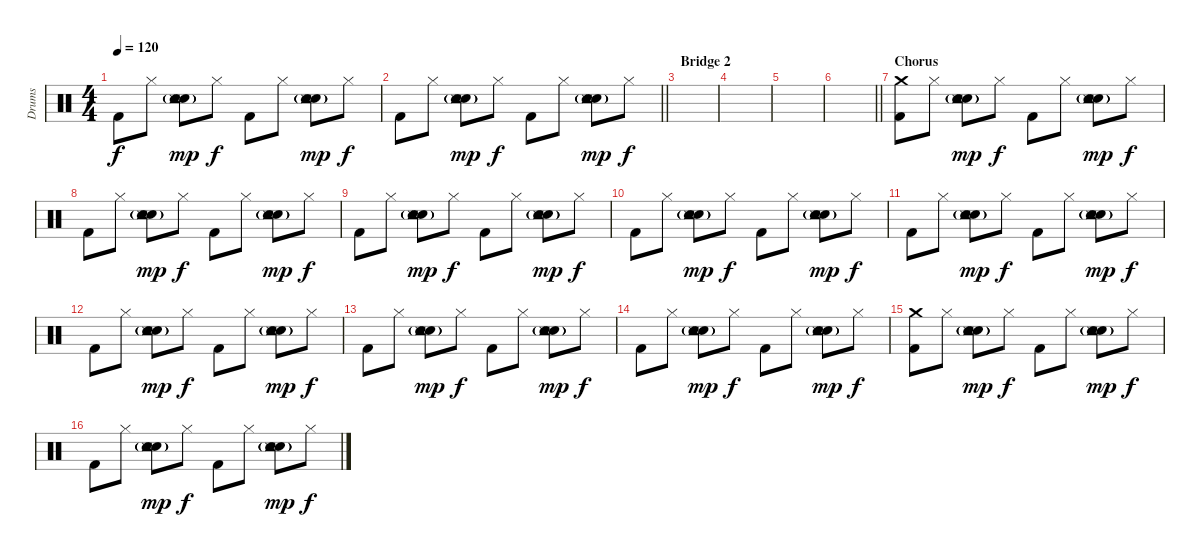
\track ("Drums" "Drums") {instrument percussion}
\staff {score}
\articulation defaults
\ts (4 4)
\tempo 120
\clef neutral
\ks c "Kick (hit) 2".8{dy f} "Hi-Hat (closed)".8
("Snare (hit) 2"{g} "Tambourine (hit)"{g} "Electric Snare (hit)" "Snare (side stick) 3"{g}).8{dy mp} "Hi-Hat (closed)".8{dy f} "Kick (hit) 2".8 "Hi-Hat (closed)".8 ("Snare (hit) 2"{g} "Tambourine (hit)"{g} "Electric Snare (hit)" "Snare (side stick) 3"{g}).8{dy mp} "Hi-Hat (closed)".8{dy f} |
\barLineRight lightlight "Kick (hit) 2".8 "Hi-Hat (closed)".8
("Snare (hit) 2"{g} "Tambourine (hit)"{g} "Electric Snare (hit)" "Snare (side stick) 3"{g}).8{dy mp} "Hi-Hat (closed)".8{dy f} "Kick (hit) 2".8 "Hi-Hat (closed)".8 ("Snare (hit) 2"{g} "Tambourine (hit)"{g} "Electric Snare (hit)" "Snare (side stick) 3"{g}).8{dy mp} "Hi-Hat (closed)".8{dy f} |
\section ("" "Bridge 2")
|
|
|
\barLineRight lightlight
|
\section ("" "Chorus")
("Crash medium (hit)" "Kick (hit) 2").8{volume 12 balance 8} "Hi-Hat (closed)".8 ("Snare (hit) 2"{g} "Tambourine (hit)"{g} "Electric Snare (hit)" "Snare (side stick) 3"{g}).8{dy mp} "Hi-Hat (closed)".8{dy f} "Kick (hit) 2".8 "Hi-Hat (closed)".8 ("Snare (hit) 2"{g} "Tambourine (hit)"{g} "Electric Snare (hit)" "Snare (side stick) 3"{g}).8{dy mp} "Hi-Hat (closed)".8{dy f} |
"Kick (hit) 2".8 "Hi-Hat (closed)".8 ("Snare (hit) 2"{g} "Tambourine (hit)"{g} "Electric Snare (hit)" "Snare (side stick) 3"{g}).8{dy mp} "Hi-Hat (closed)".8{dy f} "Kick (hit) 2".8 "Hi-Hat (closed)".8 ("Snare (hit) 2"{g} "Tambourine (hit)"{g} "Electric Snare (hit)" "Snare (side stick) 3"{g}).8{dy mp} "Hi-Hat (closed)".8{dy f} |
"Kick (hit) 2".8 "Hi-Hat (closed)".8 ("Snare (hit) 2"{g} "Tambourine (hit)"{g} "Electric Snare (hit)" "Snare (side stick) 3"{g}).8{dy mp} "Hi-Hat (closed)".8{dy f} "Kick (hit) 2".8 "Hi-Hat (closed)".8 ("Snare (hit) 2"{g} "Tambourine (hit)"{g} "Electric Snare (hit)" "Snare (side stick) 3"{g}).8{dy mp} "Hi-Hat (closed)".8{dy f} |
"Kick (hit) 2".8 "Hi-Hat (closed)".8 ("Snare (hit) 2"{g} "Tambourine (hit)"{g} "Electric Snare (hit)" "Snare (side stick) 3"{g}).8{dy mp} "Hi-Hat (closed)".8{dy f} "Kick (hit) 2".8 "Hi-Hat (closed)".8 ("Snare (hit) 2"{g} "Tambourine (hit)"{g} "Electric Snare (hit)" "Snare (side stick) 3"{g}).8{dy mp} "Hi-Hat (closed)".8{dy f} |
"Kick (hit) 2".8 "Hi-Hat (closed)".8 ("Snare (hit) 2"{g} "Tambourine (hit)"{g} "Electric Snare (hit)" "Snare (side stick) 3"{g}).8{dy mp} "Hi-Hat (closed)".8{dy f} "Kick (hit) 2".8 "Hi-Hat (closed)".8 ("Snare (hit) 2"{g} "Tambourine (hit)"{g} "Electric Snare (hit)" "Snare (side stick) 3"{g}).8{dy mp} "Hi-Hat (closed)".8{dy f} |
"Kick (hit) 2".8 "Hi-Hat (closed)".8 ("Snare (hit) 2"{g} "Tambourine (hit)"{g} "Electric Snare (hit)" "Snare (side stick) 3"{g}).8{dy mp} "Hi-Hat (closed)".8{dy f} "Kick (hit) 2".8 "Hi-Hat (closed)".8 ("Snare (hit) 2"{g} "Tambourine (hit)"{g} "Electric Snare (hit)" "Snare (side stick) 3"{g}).8{dy mp} "Hi-Hat (closed)".8{dy f} |
"Kick (hit) 2".8 "Hi-Hat (closed)".8 ("Snare (hit) 2"{g} "Tambourine (hit)"{g} "Electric Snare (hit)" "Snare (side stick) 3"{g}).8{dy mp} "Hi-Hat (closed)".8{dy f} "Kick (hit) 2".8 "Hi-Hat (closed)".8 ("Snare (hit) 2"{g} "Tambourine (hit)"{g} "Electric Snare (hit)" "Snare (side stick) 3"{g}).8{dy mp} "Hi-Hat (closed)".8{dy f} |
"Kick (hit) 2".8 "Hi-Hat (closed)".8 ("Snare (hit) 2"{g} "Tambourine (hit)"{g} "Electric Snare (hit)" "Snare (side stick) 3"{g}).8{dy mp} "Hi-Hat (closed)".8{dy f} "Kick (hit) 2".8 "Hi-Hat (closed)".8 ("Snare (hit) 2"{g} "Tambourine (hit)"{g} "Electric Snare (hit)" "Snare (side stick) 3"{g}).8{dy mp} "Hi-Hat (closed)".8{dy f} |
("Crash medium (hit)" "Kick (hit) 2").8 "Hi-Hat (closed)".8 ("Snare (hit) 2"{g} "Tambourine (hit)"{g} "Electric Snare (hit)" "Snare (side stick) 3"{g}).8{dy mp} "Hi-Hat (closed)".8{dy f} "Kick (hit) 2".8 "Hi-Hat (closed)".8 ("Snare (hit) 2"{g} "Tambourine (hit)"{g} "Electric Snare (hit)" "Snare (side stick) 3"{g}).8{dy mp} "Hi-Hat (closed)".8{dy f} |
"Kick (hit) 2".8 "Hi-Hat (closed)".8 ("Snare (hit) 2"{g} "Tambourine (hit)"{g} "Electric Snare (hit)" "Snare (side stick) 3"{g}).8{dy mp} "Hi-Hat (closed)".8{dy f} "Kick (hit) 2".8 "Hi-Hat (closed)".8 ("Snare (hit) 2"{g} "Tambourine (hit)"{g} "Electric Snare (hit)" "Snare (side stick) 3"{g}).8{dy mp} "Hi-Hat (closed)".8{dy f}
